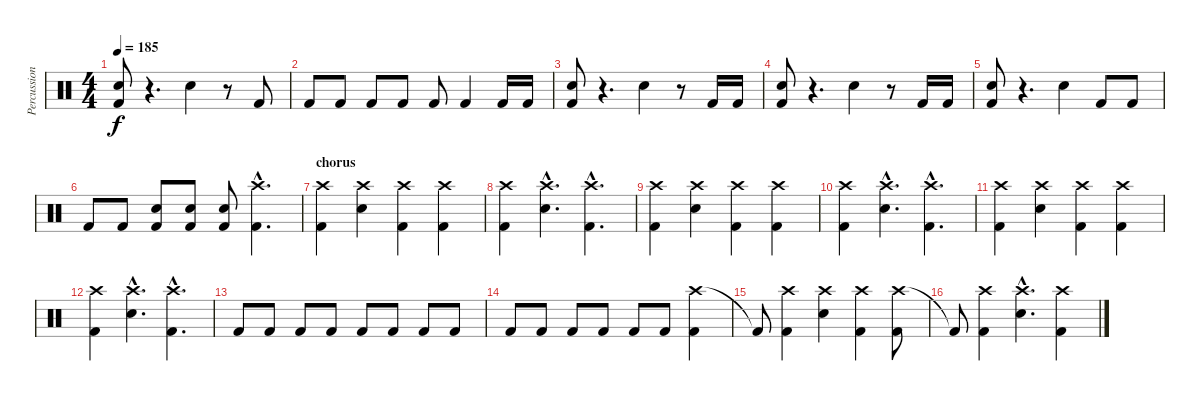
\track ("Percussion" "Percussion") {instrument percussion}
\staff {score}
\articulation defaults
\ts (4 4)
\tempo 185
\clef neutral
\ks c
("Snare (hit) 2" "Kick (hit) 2").8{dy f} r.4{d} "Snare (hit) 2".4 r.8 "Kick (hit) 2".8 |
"Kick (hit) 2".8 "Kick (hit) 2".8 "Kick (hit) 2".8 "Kick (hit) 2".8 "Kick (hit) 2".8 "Kick (hit) 2".4 "Kick (hit) 2".16 "Kick (hit) 2".16 |
("Snare (hit) 2" "Kick (hit) 2").8 r.4{d} "Snare (hit) 2".4 r.8 "Kick (hit) 2".16 "Kick (hit) 2".16 |
("Snare (hit) 2" "Kick (hit) 2").8 r.4{d} "Snare (hit) 2".4 r.8 "Kick (hit) 2".16 "Kick (hit) 2".16 |
("Snare (hit) 2" "Kick (hit) 2").8 r.4{d} "Snare (hit) 2".4 "Kick (hit) 2".8 "Kick (hit) 2".8 |
"Kick (hit) 2".8 "Kick (hit) 2".8 ("Snare (hit) 2" "Kick (hit) 2").8 ("Snare (hit) 2" "Kick (hit) 2").8 ("Snare (hit) 2" "Kick (hit) 2").8 ("Crash high (hit)"{hac} "Kick (hit) 2"{hac}).4{d} |
\section ("" "chorus")
("Crash high (hit)" "Kick (hit) 2").4 ("Crash high (hit)" "Snare (hit) 2").4 ("Crash high (hit)" "Kick (hit) 2").4 ("Crash high (hit)" "Kick (hit) 2").4 |
("Crash high (hit)" "Kick (hit) 2").4 ("Crash high (hit)"{hac} "Snare (hit) 2"{hac}).4{d} ("Crash high (hit)"{hac} "Kick (hit) 2"{hac}).4{d} |
("Crash high (hit)" "Kick (hit) 2").4 ("Crash high (hit)" "Snare (hit) 2").4 ("Crash high (hit)" "Kick (hit) 2").4 ("Crash high (hit)" "Kick (hit) 2").4 |
("Crash high (hit)" "Kick (hit) 2").4 ("Crash high (hit)"{hac} "Snare (hit) 2"{hac}).4{d} ("Crash high (hit)"{hac} "Kick (hit) 2"{hac}).4{d} |
("Crash high (hit)" "Kick (hit) 2").4 ("Crash high (hit)" "Snare (hit) 2").4 ("Crash high (hit)" "Kick (hit) 2").4 ("Crash high (hit)" "Kick (hit) 2").4 |
("Crash high (hit)" "Kick (hit) 2").4 ("Crash high (hit)"{hac} "Snare (hit) 2"{hac}).4{d} ("Crash high (hit)"{hac} "Kick (hit) 2"{hac}).4{d} |
"Kick (hit) 2".8 "Kick (hit) 2".8 "Kick (hit) 2".8 "Kick (hit) 2".8 "Kick (hit) 2".8 "Kick (hit) 2".8 "Kick (hit) 2".8 "Kick (hit) 2".8 |
"Kick (hit) 2".8 "Kick (hit) 2".8 "Kick (hit) 2".8 "Kick (hit) 2".8 "Kick (hit) 2".8 "Kick (hit) 2".8 ("Crash high (hit)" "Kick (hit) 2").4 |
"Kick (hit) 2"{t}.8 ("Crash high (hit)" "Kick (hit) 2").4 ("Crash high (hit)" "Snare (hit) 2").4 ("Crash high (hit)" "Kick (hit) 2").4 ("Crash high (hit)" "Kick (hit) 2").8 |
"Kick (hit) 2"{t}.8 ("Crash high (hit)" "Kick (hit) 2").4 ("Crash high (hit)"{hac} "Snare (hit) 2"{hac}).4{d} ("Crash high (hit)" "Kick (hit) 2").4
